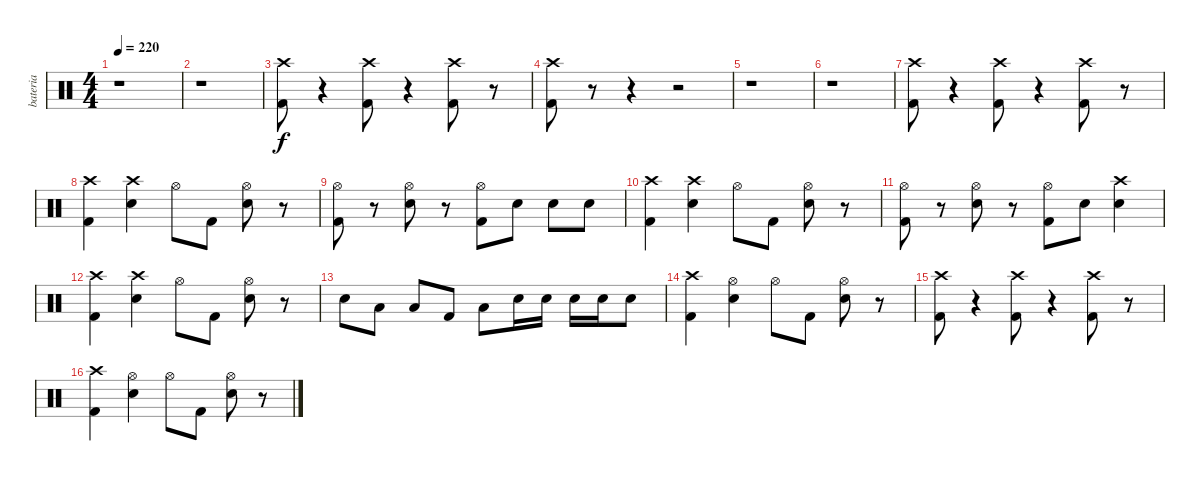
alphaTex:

\track ("bateria" "bateria") {instrument percussion}
\staff {score}
\articulation defaults
\ts (4 4)
\tempo 220
\clef neutral
\ks c
r.1{dy f} |
r.1 |
("Crash high (hit)" "Kick (hit) 2").8 r.4 ("Crash high (hit)" "Kick (hit) 2").8 r.4 ("Crash high (hit)" "Kick (hit) 2").8 r.8 |
("Crash high (hit)" "Kick (hit) 2").8 r.8 r.4 r.2 |
r.1 |
r.1 |
("Crash high (hit)" "Kick (hit) 2").8 r.4 ("Crash high (hit)" "Kick (hit) 2").8 r.4 ("Crash high (hit)" "Kick (hit) 2").8 r.8 |
("Crash high (hit)" "Kick (hit) 2").4 ("Crash high (hit)" "Snare (hit) 2").4 "Hi-Hat (open)".8 "Kick (hit) 2".8 ("Hi-Hat (open)" "Snare (hit) 2").8 r.8 |
("Hi-Hat (open)" "Kick (hit) 2").8 r.8 ("Hi-Hat (open)" "Snare (hit) 2").8 r.8 ("Hi-Hat (open)" "Kick (hit) 2").8 "Snare (hit) 2".8 "Snare (hit) 2".8 "Snare (hit) 2".8 |
("Crash high (hit)" "Kick (hit) 2").4 ("Crash high (hit)" "Snare (hit) 2").4 "Hi-Hat (open)".8 "Kick (hit) 2".8 ("Hi-Hat (open)" "Snare (hit) 2").8 r.8 |
("Hi-Hat (open)" "Kick (hit) 2").8 r.8 ("Hi-Hat (open)" "Snare (hit) 2").8 r.8 ("Hi-Hat (open)" "Kick (hit) 2").8 "Snare (hit) 2".8 ("Crash high (hit)" "Snare (hit) 2").4 |
("Crash high (hit)" "Kick (hit) 2").4 ("Crash high (hit)" "Snare (hit) 2").4 "Hi-Hat (open)".8 "Kick (hit) 2".8 ("Hi-Hat (open)" "Snare (hit) 2").8 r.8 |
"Snare (hit) 2".8 "Low Tom (hit)".8 "Low Tom (hit)".8 "Kick (hit) 2".8 "Low Tom (hit)".8 "Snare (hit) 2".16 "Snare (hit) 2".16 "Snare (hit) 2".16 "Snare (hit) 2".16 "Snare (hit) 2".8 |
("Crash high (hit)" "Kick (hit) 2").4 ("Hi-Hat (open)" "Snare (hit) 2").4 "Hi-Hat (open)".8 "Kick (hit) 2".8 ("Hi-Hat (open)" "Snare (hit) 2").8 r.8 |
("Crash high (hit)" "Kick (hit) 2").8 r.4 ("Crash high (hit)" "Kick (hit) 2").8 r.4 ("Crash high (hit)" "Kick (hit) 2").8 r.8 |
("Crash high (hit)" "Kick (hit) 2").4 ("Hi-Hat (open)" "Snare (hit) 2").4 "Hi-Hat (open)".8 "Kick (hit) 2".8 ("Hi-Hat (open)" "Snare (hit) 2").8 r.8
